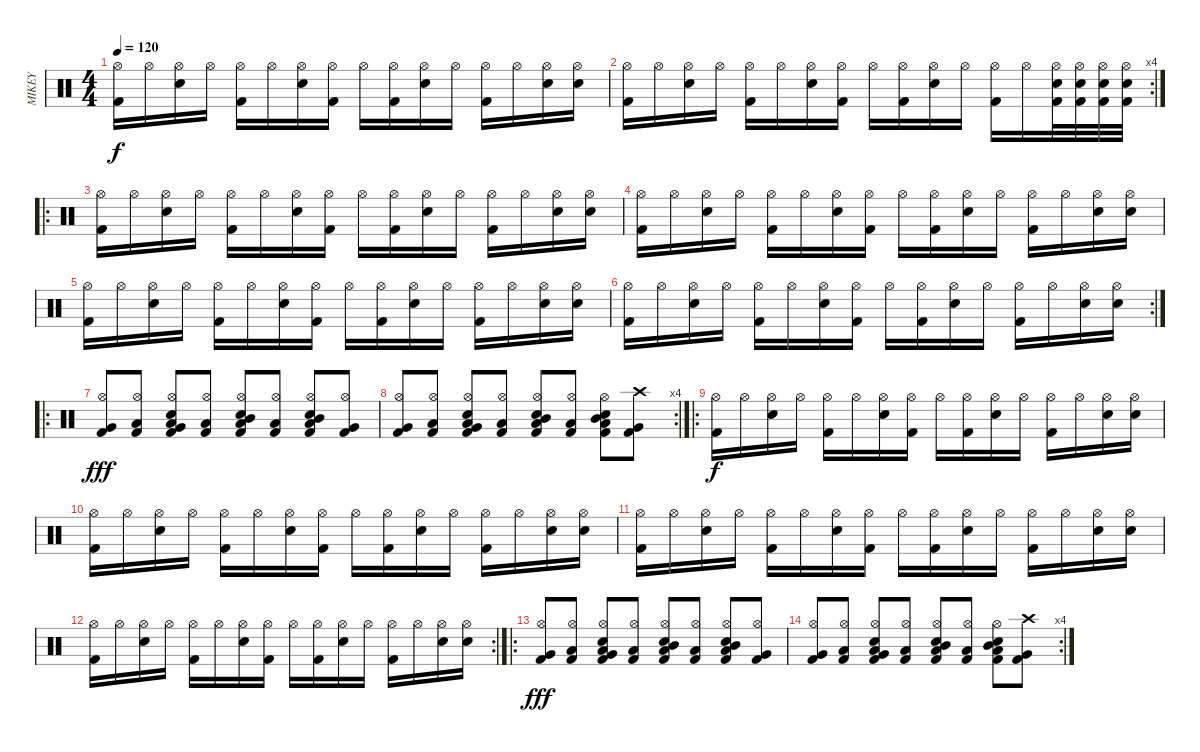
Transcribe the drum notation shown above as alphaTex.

\track ("MIKEY" "MIKEY") {instrument percussion}
\staff {score}
\articulation defaults
\ts (4 4)
\tempo 120
\clef neutral
\ks c
("Kick (hit) 2" "Hi-Hat (open)").16{dy f} "Hi-Hat (open)".16 ("Electric Snare (hit)" "Hi-Hat (open)").16 "Hi-Hat (open)".16 ("Kick (hit) 2" "Hi-Hat (open)").16 "Hi-Hat (open)".16 ("Electric Snare (hit)" "Hi-Hat (open)").16 ("Kick (hit) 2" "Hi-Hat (open)").16 "Hi-Hat (open)".16 ("Kick (hit) 2" "Hi-Hat (open)").16 ("Electric Snare (hit)" "Hi-Hat (open)").16 "Hi-Hat (open)".16 ("Kick (hit) 2" "Hi-Hat (open)").16 "Hi-Hat (open)".16 ("Electric Snare (hit)" "Hi-Hat (open)").16 ("Electric Snare (hit)" "Hi-Hat (open)").16 |
\rc 4
("Kick (hit) 2" "Hi-Hat (open)").16 "Hi-Hat (open)".16 ("Electric Snare (hit)" "Hi-Hat (open)").16 "Hi-Hat (open)".16 ("Kick (hit) 2" "Hi-Hat (open)").16 "Hi-Hat (open)".16 ("Electric Snare (hit)" "Hi-Hat (open)").16 ("Kick (hit) 2" "Hi-Hat (open)").16 "Hi-Hat (open)".16 ("Kick (hit) 2" "Hi-Hat (open)").16 ("Electric Snare (hit)" "Hi-Hat (open)").16 "Hi-Hat (open)".16 ("Kick (hit) 2" "Hi-Hat (open)").16 "Hi-Hat (open)".16 ("Kick (hit) 2" "Electric Snare (hit)" "Hi-Hat (open)").32 ("Kick (hit) 2" "Electric Snare (hit)" "Hi-Hat (open)").32 ("Kick (hit) 2" "Electric Snare (hit)" "Hi-Hat (open)").32 ("Kick (hit) 2" "Electric Snare (hit)" "Hi-Hat (open)").32 |
\ro
("Kick (hit) 2" "Hi-Hat (open)").16 "Hi-Hat (open)".16 ("Electric Snare (hit)" "Hi-Hat (open)").16 "Hi-Hat (open)".16 ("Kick (hit) 2" "Hi-Hat (open)").16 "Hi-Hat (open)".16 ("Electric Snare (hit)" "Hi-Hat (open)").16 ("Kick (hit) 2" "Hi-Hat (open)").16 "Hi-Hat (open)".16 ("Kick (hit) 2" "Hi-Hat (open)").16 ("Electric Snare (hit)" "Hi-Hat (open)").16 "Hi-Hat (open)".16 ("Kick (hit) 2" "Hi-Hat (open)").16 "Hi-Hat (open)".16 ("Electric Snare (hit)" "Hi-Hat (open)").16 ("Electric Snare (hit)" "Hi-Hat (open)").16 |
("Kick (hit) 2" "Hi-Hat (open)").16 "Hi-Hat (open)".16 ("Electric Snare (hit)" "Hi-Hat (open)").16 "Hi-Hat (open)".16 ("Kick (hit) 2" "Hi-Hat (open)").16 "Hi-Hat (open)".16 ("Electric Snare (hit)" "Hi-Hat (open)").16 ("Kick (hit) 2" "Hi-Hat (open)").16 "Hi-Hat (open)".16 ("Kick (hit) 2" "Hi-Hat (open)").16 ("Electric Snare (hit)" "Hi-Hat (open)").16 "Hi-Hat (open)".16 ("Kick (hit) 2" "Hi-Hat (open)").16 "Hi-Hat (open)".16 ("Electric Snare (hit)" "Hi-Hat (open)").16 ("Electric Snare (hit)" "Hi-Hat (open)").16 |
("Kick (hit) 2" "Hi-Hat (open)").16 "Hi-Hat (open)".16 ("Electric Snare (hit)" "Hi-Hat (open)").16 "Hi-Hat (open)".16 ("Kick (hit) 2" "Hi-Hat (open)").16 "Hi-Hat (open)".16 ("Electric Snare (hit)" "Hi-Hat (open)").16 ("Kick (hit) 2" "Hi-Hat (open)").16 "Hi-Hat (open)".16 ("Kick (hit) 2" "Hi-Hat (open)").16 ("Electric Snare (hit)" "Hi-Hat (open)").16 "Hi-Hat (open)".16 ("Kick (hit) 2" "Hi-Hat (open)").16 "Hi-Hat (open)".16 ("Electric Snare (hit)" "Hi-Hat (open)").16 ("Electric Snare (hit)" "Hi-Hat (open)").16 |
\rc 2
("Kick (hit) 2" "Hi-Hat (open)").16 "Hi-Hat (open)".16 ("Electric Snare (hit)" "Hi-Hat (open)").16 "Hi-Hat (open)".16 ("Kick (hit) 2" "Hi-Hat (open)").16 "Hi-Hat (open)".16 ("Electric Snare (hit)" "Hi-Hat (open)").16 ("Kick (hit) 2" "Hi-Hat (open)").16 "Hi-Hat (open)".16 ("Kick (hit) 2" "Hi-Hat (open)").16 ("Electric Snare (hit)" "Hi-Hat (open)").16 "Hi-Hat (open)".16 ("Kick (hit) 2" "Hi-Hat (open)").16 "Hi-Hat (open)".16 ("Electric Snare (hit)" "Hi-Hat (open)").16 ("Electric Snare (hit)" "Hi-Hat (open)").16 |
\ro
("Kick (hit) 2" "Very Low Tom (hit)" "Hi-Hat (open)").8{dy fff} ("Kick (hit) 2" "Low Tom (hit)" "Hi-Hat (open)").8 ("Low Floor Tom (hit)" "Electric Snare (hit)" "Kick (hit) 2" "Very Low Tom (hit)" "Hi-Hat (open)").8 ("Kick (hit) 2" "Low Tom (hit)" "Hi-Hat (open)").8 ("Low Floor Tom (hit)" "Electric Snare (hit)" "Kick (hit) 2" "Mid Tom (hit)" "Hi-Hat (open)").8 ("Kick (hit) 2" "Low Tom (hit)" "Hi-Hat (open)").8 ("Low Floor Tom (hit)" "Electric Snare (hit)" "Kick (hit) 2" "Mid Tom (hit)" "Hi-Hat (open)").8 ("Kick (hit) 2" "Very Low Tom (hit)" "Hi-Hat (open)").8 |
\rc 4
("Kick (hit) 2" "Very Low Tom (hit)" "Hi-Hat (open)").8 ("Kick (hit) 2" "Low Tom (hit)" "Hi-Hat (open)").8 ("Low Floor Tom (hit)" "Electric Snare (hit)" "Kick (hit) 2" "Very Low Tom (hit)" "Hi-Hat (open)").8 ("Kick (hit) 2" "Low Tom (hit)" "Hi-Hat (open)").8 ("Low Floor Tom (hit)" "Electric Snare (hit)" "Kick (hit) 2" "Mid Tom (hit)" "Hi-Hat (open)").8 ("Kick (hit) 2" "Low Tom (hit)" "Hi-Hat (open)").8 ("Low Floor Tom (hit)" "Electric Snare (hit)" "Kick (hit) 2" "Mid Tom (hit)" "Hi-Hat (open)").8 ("Kick (hit) 2" "Very Low Tom (hit)" "Crash high (hit)").8 |
\ro
("Kick (hit) 2" "Hi-Hat (open)").16{dy f} "Hi-Hat (open)".16 ("Electric Snare (hit)" "Hi-Hat (open)").16 "Hi-Hat (open)".16 ("Kick (hit) 2" "Hi-Hat (open)").16 "Hi-Hat (open)".16 ("Electric Snare (hit)" "Hi-Hat (open)").16 ("Kick (hit) 2" "Hi-Hat (open)").16 "Hi-Hat (open)".16 ("Kick (hit) 2" "Hi-Hat (open)").16 ("Electric Snare (hit)" "Hi-Hat (open)").16 "Hi-Hat (open)".16 ("Kick (hit) 2" "Hi-Hat (open)").16 "Hi-Hat (open)".16 ("Electric Snare (hit)" "Hi-Hat (open)").16 ("Electric Snare (hit)" "Hi-Hat (open)").16 |
("Kick (hit) 2" "Hi-Hat (open)").16 "Hi-Hat (open)".16 ("Electric Snare (hit)" "Hi-Hat (open)").16 "Hi-Hat (open)".16 ("Kick (hit) 2" "Hi-Hat (open)").16 "Hi-Hat (open)".16 ("Electric Snare (hit)" "Hi-Hat (open)").16 ("Kick (hit) 2" "Hi-Hat (open)").16 "Hi-Hat (open)".16 ("Kick (hit) 2" "Hi-Hat (open)").16 ("Electric Snare (hit)" "Hi-Hat (open)").16 "Hi-Hat (open)".16 ("Kick (hit) 2" "Hi-Hat (open)").16 "Hi-Hat (open)".16 ("Electric Snare (hit)" "Hi-Hat (open)").16 ("Electric Snare (hit)" "Hi-Hat (open)").16 |
("Kick (hit) 2" "Hi-Hat (open)").16 "Hi-Hat (open)".16 ("Electric Snare (hit)" "Hi-Hat (open)").16 "Hi-Hat (open)".16 ("Kick (hit) 2" "Hi-Hat (open)").16 "Hi-Hat (open)".16 ("Electric Snare (hit)" "Hi-Hat (open)").16 ("Kick (hit) 2" "Hi-Hat (open)").16 "Hi-Hat (open)".16 ("Kick (hit) 2" "Hi-Hat (open)").16 ("Electric Snare (hit)" "Hi-Hat (open)").16 "Hi-Hat (open)".16 ("Kick (hit) 2" "Hi-Hat (open)").16 "Hi-Hat (open)".16 ("Electric Snare (hit)" "Hi-Hat (open)").16 ("Electric Snare (hit)" "Hi-Hat (open)").16 |
\rc 2
("Kick (hit) 2" "Hi-Hat (open)").16 "Hi-Hat (open)".16 ("Electric Snare (hit)" "Hi-Hat (open)").16 "Hi-Hat (open)".16 ("Kick (hit) 2" "Hi-Hat (open)").16 "Hi-Hat (open)".16 ("Electric Snare (hit)" "Hi-Hat (open)").16 ("Kick (hit) 2" "Hi-Hat (open)").16 "Hi-Hat (open)".16 ("Kick (hit) 2" "Hi-Hat (open)").16 ("Electric Snare (hit)" "Hi-Hat (open)").16 "Hi-Hat (open)".16 ("Kick (hit) 2" "Hi-Hat (open)").16 "Hi-Hat (open)".16 ("Electric Snare (hit)" "Hi-Hat (open)").16 ("Electric Snare (hit)" "Hi-Hat (open)").16 |
\ro
("Kick (hit) 2" "Very Low Tom (hit)" "Hi-Hat (open)").8{dy fff} ("Kick (hit) 2" "Low Tom (hit)" "Hi-Hat (open)").8 ("Low Floor Tom (hit)" "Electric Snare (hit)" "Kick (hit) 2" "Very Low Tom (hit)" "Hi-Hat (open)").8 ("Kick (hit) 2" "Low Tom (hit)" "Hi-Hat (open)").8 ("Low Floor Tom (hit)" "Electric Snare (hit)" "Kick (hit) 2" "Mid Tom (hit)" "Hi-Hat (open)").8 ("Kick (hit) 2" "Low Tom (hit)" "Hi-Hat (open)").8 ("Low Floor Tom (hit)" "Electric Snare (hit)" "Kick (hit) 2" "Mid Tom (hit)" "Hi-Hat (open)").8 ("Kick (hit) 2" "Very Low Tom (hit)" "Hi-Hat (open)").8 |
\rc 4
("Kick (hit) 2" "Very Low Tom (hit)" "Hi-Hat (open)").8 ("Kick (hit) 2" "Low Tom (hit)" "Hi-Hat (open)").8 ("Low Floor Tom (hit)" "Electric Snare (hit)" "Kick (hit) 2" "Very Low Tom (hit)" "Hi-Hat (open)").8 ("Kick (hit) 2" "Low Tom (hit)" "Hi-Hat (open)").8 ("Low Floor Tom (hit)" "Electric Snare (hit)" "Kick (hit) 2" "Mid Tom (hit)" "Hi-Hat (open)").8 ("Kick (hit) 2" "Low Tom (hit)" "Hi-Hat (open)").8 ("Low Floor Tom (hit)" "Electric Snare (hit)" "Kick (hit) 2" "Mid Tom (hit)" "Hi-Hat (open)").8 ("Kick (hit) 2" "Very Low Tom (hit)" "Crash high (hit)").8
